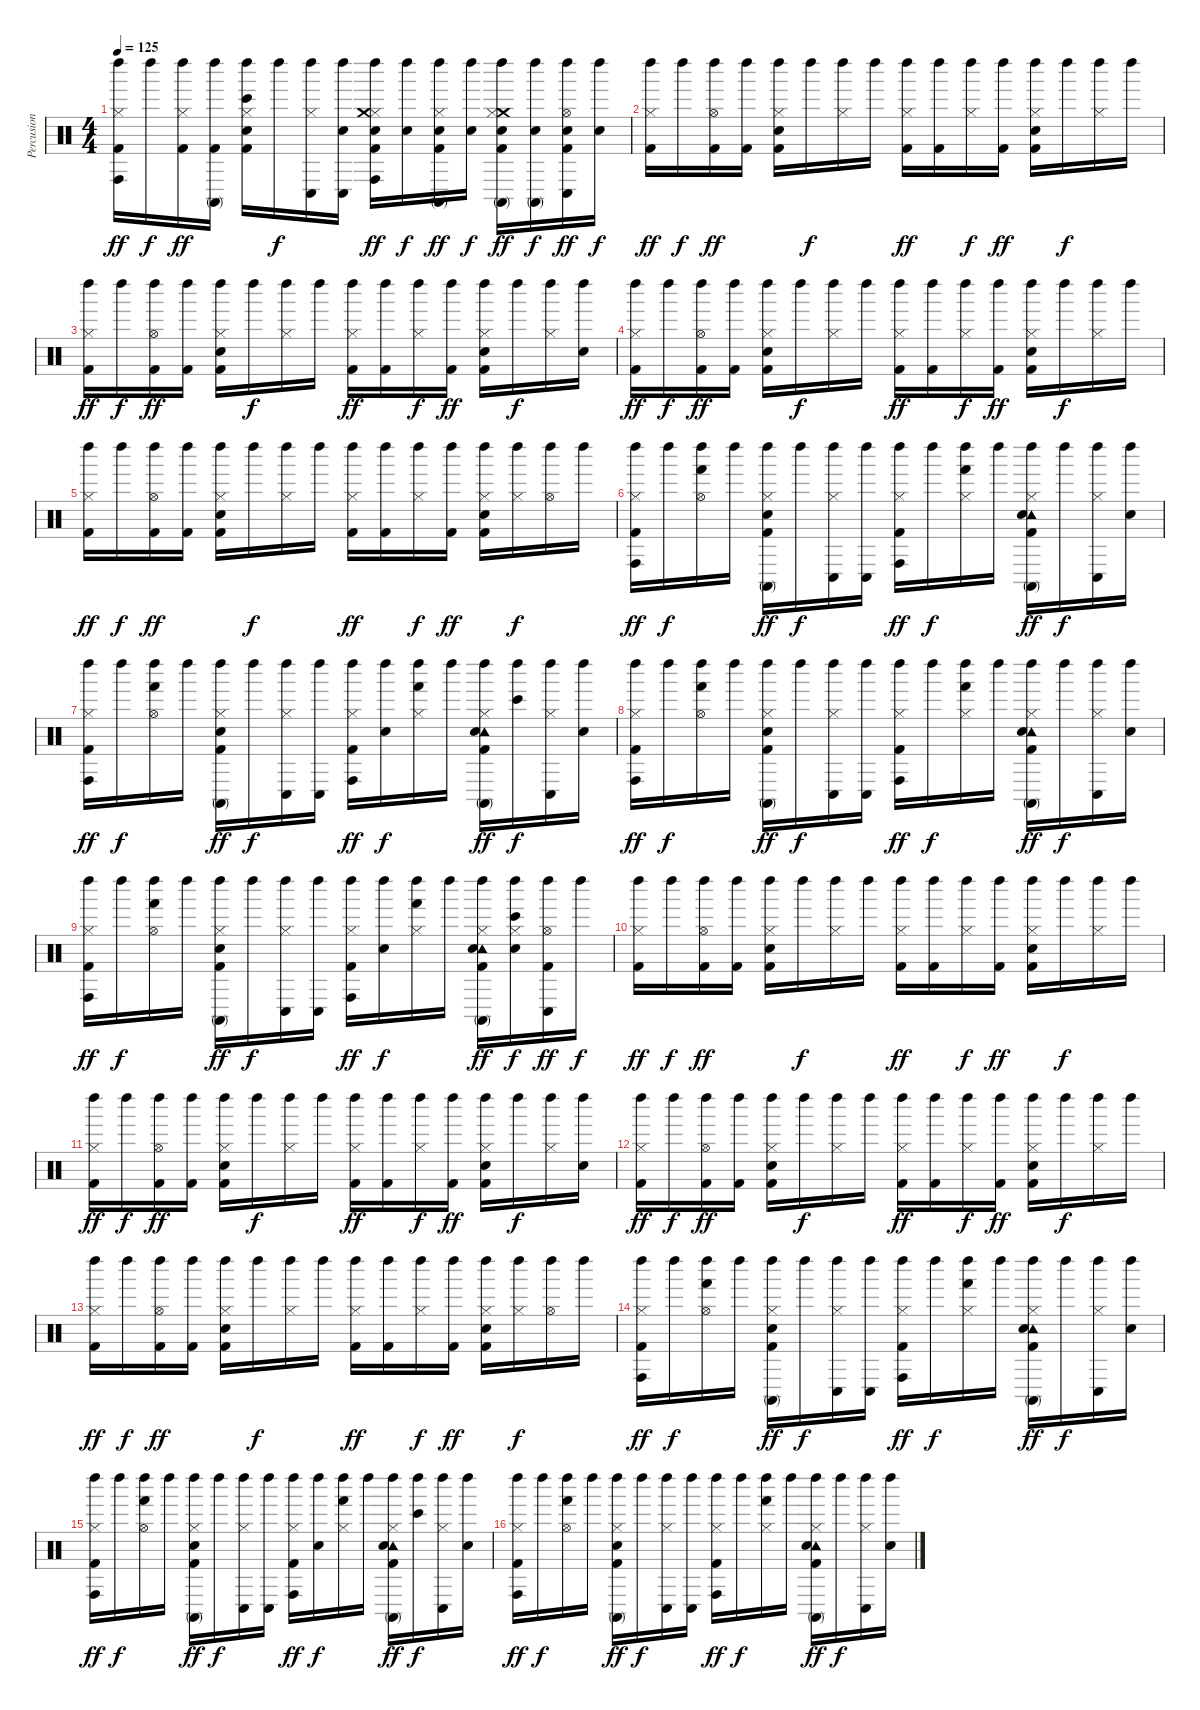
\track ("Percusion" "Percusion") {instrument percussion}
\staff {score}
\articulation defaults
\ts (4 4)
\tempo 125
\clef neutral
\ks c
("Left Maraca (hit)" "Hi-Hat (closed)" "Conga high (hit)" "Kick (hit) 2").16{dy ff} "Left Maraca (hit)".16{dy f} ("Left Maraca (hit)" "Hi-Hat (closed)" "Kick (hit) 2").16{dy ff} ("Left Maraca (hit)" "Conga high (mute)" "Kick (hit) 2").16 ("Electric Snare (hit)" "Left Maraca (hit)" "Hi-Hat (closed)" "Bongo High (hit)" "Kick (hit) 2").16 "Left Maraca (hit)".16{dy f} ("Left Maraca (hit)" "Hi-Hat (closed)" "Conga low (hit)").16 ("Conga low (hit)" "Left Maraca (hit)" "Electric Snare (hit)").16 ("Electric Snare (hit)" "Left Maraca (hit)" "Hi-Hat (closed)" "Crash medium (hit)" "Conga high (hit)" "Kick (hit) 2").16{dy ff} ("Electric Snare (hit)" "Left Maraca (hit)").16{dy f} ("Conga high (mute)" "Left Maraca (hit)" "Hi-Hat (closed)" "Electric Snare (hit)" "Kick (hit) 2").16{dy ff} ("Electric Snare (hit)" "Left Maraca (hit)").16{dy f} ("Crash medium (hit)" "Conga high (mute)" "Left Maraca (hit)" "Hi-Hat (closed)" "Electric Snare (hit)" "Kick (hit) 2").16{dy ff} ("Electric Snare (hit)" "Left Maraca (hit)" "Conga high (mute)").16{dy f} ("Conga low (hit)" "Left Maraca (hit)" "Hi-Hat (open)" "Electric Snare (hit)" "Kick (hit) 2").16{dy ff} ("Electric Snare (hit)" "Left Maraca (hit)").16{dy f} |
("Left Maraca (hit)" "Hi-Hat (closed)" "Kick (hit) 2").16{dy ff} "Left Maraca (hit)".16{dy f} ("Left Maraca (hit)" "Hi-Hat (open)" "Kick (hit) 2").16{dy ff} ("Kick (hit) 2" "Left Maraca (hit)").16 ("Left Maraca (hit)" "Hi-Hat (closed)" "Kick (hit) 2" "Electric Snare (hit)").16 "Left Maraca (hit)".16{dy f} ("Left Maraca (hit)" "Hi-Hat (closed)").16 "Left Maraca (hit)".16 ("Left Maraca (hit)" "Hi-Hat (closed)" "Kick (hit) 2").16{dy ff} ("Kick (hit) 2" "Left Maraca (hit)").16 ("Left Maraca (hit)" "Hi-Hat (closed)").16{dy f} ("Left Maraca (hit)" "Kick (hit) 2").16{dy ff} ("Kick (hit) 2" "Electric Snare (hit)" "Left Maraca (hit)" "Hi-Hat (closed)").16 "Left Maraca (hit)".16{dy f} ("Left Maraca (hit)" "Hi-Hat (closed)").16 "Left Maraca (hit)".16 |
("Left Maraca (hit)" "Hi-Hat (closed)" "Kick (hit) 2").16{dy ff} "Left Maraca (hit)".16{dy f} ("Left Maraca (hit)" "Hi-Hat (open)" "Kick (hit) 2").16{dy ff} ("Kick (hit) 2" "Left Maraca (hit)").16 ("Left Maraca (hit)" "Hi-Hat (closed)" "Kick (hit) 2" "Electric Snare (hit)").16 "Left Maraca (hit)".16{dy f} ("Left Maraca (hit)" "Hi-Hat (closed)").16 "Left Maraca (hit)".16 ("Left Maraca (hit)" "Hi-Hat (closed)" "Kick (hit) 2").16{dy ff} ("Kick (hit) 2" "Left Maraca (hit)").16 ("Left Maraca (hit)" "Hi-Hat (closed)").16{dy f} ("Left Maraca (hit)" "Kick (hit) 2").16{dy ff} ("Kick (hit) 2" "Electric Snare (hit)" "Left Maraca (hit)" "Hi-Hat (closed)").16 "Left Maraca (hit)".16{dy f} ("Left Maraca (hit)" "Hi-Hat (closed)").16 ("Left Maraca (hit)" "Electric Snare (hit)").16 |
("Kick (hit) 2" "Left Maraca (hit)" "Hi-Hat (closed)").16{dy ff} "Left Maraca (hit)".16{dy f} ("Left Maraca (hit)" "Hi-Hat (open)" "Kick (hit) 2").16{dy ff} ("Kick (hit) 2" "Left Maraca (hit)").16 ("Left Maraca (hit)" "Hi-Hat (closed)" "Kick (hit) 2" "Electric Snare (hit)").16 "Left Maraca (hit)".16{dy f} ("Left Maraca (hit)" "Hi-Hat (closed)").16 "Left Maraca (hit)".16 ("Left Maraca (hit)" "Hi-Hat (closed)" "Kick (hit) 2").16{dy ff} ("Kick (hit) 2" "Left Maraca (hit)").16 ("Left Maraca (hit)" "Hi-Hat (closed)").16{dy f} ("Left Maraca (hit)" "Kick (hit) 2").16{dy ff} ("Kick (hit) 2" "Electric Snare (hit)" "Left Maraca (hit)" "Hi-Hat (closed)").16 "Left Maraca (hit)".16{dy f} ("Left Maraca (hit)" "Hi-Hat (closed)").16 "Left Maraca (hit)".16 |
("Left Maraca (hit)" "Hi-Hat (closed)" "Kick (hit) 2").16{dy ff} "Left Maraca (hit)".16{dy f} ("Left Maraca (hit)" "Hi-Hat (open)" "Kick (hit) 2").16{dy ff} ("Kick (hit) 2" "Left Maraca (hit)").16 ("Left Maraca (hit)" "Hi-Hat (closed)" "Kick (hit) 2" "Electric Snare (hit)").16 "Left Maraca (hit)".16{dy f} ("Left Maraca (hit)" "Hi-Hat (closed)").16 "Left Maraca (hit)".16 ("Left Maraca (hit)" "Hi-Hat (closed)" "Kick (hit) 2").16{dy ff} ("Kick (hit) 2" "Left Maraca (hit)").16 ("Left Maraca (hit)" "Hi-Hat (closed)").16{dy f} ("Left Maraca (hit)" "Kick (hit) 2").16{dy ff} ("Kick (hit) 2" "Electric Snare (hit)" "Left Maraca (hit)" "Hi-Hat (closed)").16 ("Left Maraca (hit)" "Hi-Hat (closed)").16{dy f} ("Left Maraca (hit)" "Hi-Hat (open)").16 "Left Maraca (hit)".16 |
("Left Maraca (hit)" "Hi-Hat (closed)" "Conga high (hit)" "Kick (hit) 2").16{dy ff} "Left Maraca (hit)".16{dy f} ("Left Maraca (hit)" "Hi-Hat (open)" "Hand (hit)").16 "Left Maraca (hit)".16 ("Left Maraca (hit)" "Hi-Hat (closed)" "Conga high (mute)" "Kick (hit) 2" "Electric Snare (hit)").16{dy ff} "Left Maraca (hit)".16{dy f} ("Left Maraca (hit)" "Hi-Hat (closed)" "Conga low (hit)").16 ("Conga low (hit)" "Left Maraca (hit)").16 ("Left Maraca (hit)" "Hi-Hat (closed)" "Conga high (hit)" "Kick (hit) 2").16{dy ff} "Left Maraca (hit)".16{dy f} ("Left Maraca (hit)" "Hi-Hat (closed)" "Hand (hit)").16 "Left Maraca (hit)".16 ("Left Maraca (hit)" "Hi-Hat (closed)" "Conga high (mute)" "Tambourine (hit)" "Kick (hit) 2" "Electric Snare (hit)").16{dy ff} "Left Maraca (hit)".16{dy f} ("Left Maraca (hit)" "Hi-Hat (closed)" "Conga low (hit)").16 ("Left Maraca (hit)" "Electric Snare (hit)").16 |
("Kick (hit) 2" "Left Maraca (hit)" "Hi-Hat (closed)" "Conga high (hit)").16{dy ff} "Left Maraca (hit)".16{dy f} ("Left Maraca (hit)" "Hi-Hat (open)" "Hand (hit)").16 "Left Maraca (hit)".16 ("Left Maraca (hit)" "Hi-Hat (closed)" "Conga high (mute)" "Kick (hit) 2" "Electric Snare (hit)").16{dy ff} "Left Maraca (hit)".16{dy f} ("Left Maraca (hit)" "Hi-Hat (closed)" "Conga low (hit)").16 ("Conga low (hit)" "Left Maraca (hit)").16 ("Left Maraca (hit)" "Hi-Hat (closed)" "Conga high (hit)" "Kick (hit) 2").16{dy ff} ("Electric Snare (hit)" "Left Maraca (hit)").16{dy f} ("Left Maraca (hit)" "Hi-Hat (closed)" "Hand (hit)").16 "Left Maraca (hit)".16 ("Left Maraca (hit)" "Hi-Hat (closed)" "Conga high (mute)" "Tambourine (hit)" "Electric Snare (hit)" "Kick (hit) 2").16{dy ff} ("Bongo High (hit)" "Left Maraca (hit)").16{dy f} ("Left Maraca (hit)" "Hi-Hat (closed)" "Conga low (hit)").16 ("Left Maraca (hit)" "Electric Snare (hit)").16 |
("Kick (hit) 2" "Left Maraca (hit)" "Hi-Hat (closed)" "Conga high (hit)").16{dy ff} "Left Maraca (hit)".16{dy f} ("Left Maraca (hit)" "Hi-Hat (open)" "Hand (hit)").16 "Left Maraca (hit)".16 ("Left Maraca (hit)" "Hi-Hat (closed)" "Conga high (mute)" "Kick (hit) 2" "Electric Snare (hit)").16{dy ff} "Left Maraca (hit)".16{dy f} ("Left Maraca (hit)" "Hi-Hat (closed)" "Conga low (hit)").16 ("Conga low (hit)" "Left Maraca (hit)").16 ("Left Maraca (hit)" "Hi-Hat (closed)" "Conga high (hit)" "Kick (hit) 2").16{dy ff} "Left Maraca (hit)".16{dy f} ("Left Maraca (hit)" "Hi-Hat (closed)" "Hand (hit)").16 "Left Maraca (hit)".16 ("Left Maraca (hit)" "Hi-Hat (closed)" "Conga high (mute)" "Tambourine (hit)" "Kick (hit) 2" "Electric Snare (hit)").16{dy ff} "Left Maraca (hit)".16{dy f} ("Left Maraca (hit)" "Hi-Hat (closed)" "Conga low (hit)").16 ("Left Maraca (hit)" "Electric Snare (hit)").16 |
("Kick (hit) 2" "Left Maraca (hit)" "Hi-Hat (closed)" "Conga high (hit)").16{dy ff} "Left Maraca (hit)".16{dy f} ("Left Maraca (hit)" "Hi-Hat (open)" "Hand (hit)").16 "Left Maraca (hit)".16 ("Left Maraca (hit)" "Hi-Hat (closed)" "Conga high (mute)" "Kick (hit) 2" "Electric Snare (hit)").16{dy ff} "Left Maraca (hit)".16{dy f} ("Left Maraca (hit)" "Hi-Hat (closed)" "Conga low (hit)").16 ("Conga low (hit)" "Left Maraca (hit)").16 ("Left Maraca (hit)" "Hi-Hat (closed)" "Conga high (hit)" "Kick (hit) 2").16{dy ff} ("Electric Snare (hit)" "Left Maraca (hit)").16{dy f} ("Left Maraca (hit)" "Hi-Hat (closed)" "Hand (hit)").16 "Left Maraca (hit)".16 ("Left Maraca (hit)" "Hi-Hat (closed)" "Conga high (mute)" "Tambourine (hit)" "Electric Snare (hit)" "Kick (hit) 2").16{dy ff} ("Electric Snare (hit)" "Bongo High (hit)" "Left Maraca (hit)" "Hi-Hat (closed)").16{dy f} ("Left Maraca (hit)" "Hi-Hat (open)" "Conga low (hit)" "Kick (hit) 2").16{dy ff} "Left Maraca (hit)".16{dy f} |
("Left Maraca (hit)" "Hi-Hat (closed)" "Kick (hit) 2").16{dy ff} "Left Maraca (hit)".16{dy f} ("Left Maraca (hit)" "Hi-Hat (open)" "Kick (hit) 2").16{dy ff} ("Kick (hit) 2" "Left Maraca (hit)").16 ("Left Maraca (hit)" "Hi-Hat (closed)" "Kick (hit) 2" "Electric Snare (hit)").16 "Left Maraca (hit)".16{dy f} ("Left Maraca (hit)" "Hi-Hat (closed)").16 "Left Maraca (hit)".16 ("Left Maraca (hit)" "Hi-Hat (closed)" "Kick (hit) 2").16{dy ff} ("Kick (hit) 2" "Left Maraca (hit)").16 ("Left Maraca (hit)" "Hi-Hat (closed)").16{dy f} ("Left Maraca (hit)" "Kick (hit) 2").16{dy ff} ("Kick (hit) 2" "Electric Snare (hit)" "Left Maraca (hit)" "Hi-Hat (closed)").16 "Left Maraca (hit)".16{dy f} ("Left Maraca (hit)" "Hi-Hat (closed)").16 "Left Maraca (hit)".16 |
("Left Maraca (hit)" "Hi-Hat (closed)" "Kick (hit) 2").16{dy ff} "Left Maraca (hit)".16{dy f} ("Left Maraca (hit)" "Hi-Hat (open)" "Kick (hit) 2").16{dy ff} ("Kick (hit) 2" "Left Maraca (hit)").16 ("Left Maraca (hit)" "Hi-Hat (closed)" "Kick (hit) 2" "Electric Snare (hit)").16 "Left Maraca (hit)".16{dy f} ("Left Maraca (hit)" "Hi-Hat (closed)").16 "Left Maraca (hit)".16 ("Left Maraca (hit)" "Hi-Hat (closed)" "Kick (hit) 2").16{dy ff} ("Kick (hit) 2" "Left Maraca (hit)").16 ("Left Maraca (hit)" "Hi-Hat (closed)").16{dy f} ("Left Maraca (hit)" "Kick (hit) 2").16{dy ff} ("Kick (hit) 2" "Electric Snare (hit)" "Left Maraca (hit)" "Hi-Hat (closed)").16 "Left Maraca (hit)".16{dy f} ("Left Maraca (hit)" "Hi-Hat (closed)").16 ("Left Maraca (hit)" "Electric Snare (hit)").16 |
("Kick (hit) 2" "Left Maraca (hit)" "Hi-Hat (closed)").16{dy ff} "Left Maraca (hit)".16{dy f} ("Left Maraca (hit)" "Hi-Hat (open)" "Kick (hit) 2").16{dy ff} ("Kick (hit) 2" "Left Maraca (hit)").16 ("Left Maraca (hit)" "Hi-Hat (closed)" "Kick (hit) 2" "Electric Snare (hit)").16 "Left Maraca (hit)".16{dy f} ("Left Maraca (hit)" "Hi-Hat (closed)").16 "Left Maraca (hit)".16 ("Left Maraca (hit)" "Hi-Hat (closed)" "Kick (hit) 2").16{dy ff} ("Kick (hit) 2" "Left Maraca (hit)").16 ("Left Maraca (hit)" "Hi-Hat (closed)").16{dy f} ("Left Maraca (hit)" "Kick (hit) 2").16{dy ff} ("Kick (hit) 2" "Electric Snare (hit)" "Left Maraca (hit)" "Hi-Hat (closed)").16 "Left Maraca (hit)".16{dy f} ("Left Maraca (hit)" "Hi-Hat (closed)").16 "Left Maraca (hit)".16 |
("Left Maraca (hit)" "Hi-Hat (closed)" "Kick (hit) 2").16{dy ff} "Left Maraca (hit)".16{dy f} ("Left Maraca (hit)" "Hi-Hat (open)" "Kick (hit) 2").16{dy ff} ("Kick (hit) 2" "Left Maraca (hit)").16 ("Left Maraca (hit)" "Hi-Hat (closed)" "Kick (hit) 2" "Electric Snare (hit)").16 "Left Maraca (hit)".16{dy f} ("Left Maraca (hit)" "Hi-Hat (closed)").16 "Left Maraca (hit)".16 ("Left Maraca (hit)" "Hi-Hat (closed)" "Kick (hit) 2").16{dy ff} ("Kick (hit) 2" "Left Maraca (hit)").16 ("Left Maraca (hit)" "Hi-Hat (closed)").16{dy f} ("Left Maraca (hit)" "Kick (hit) 2").16{dy ff} ("Kick (hit) 2" "Electric Snare (hit)" "Left Maraca (hit)" "Hi-Hat (closed)").16 ("Left Maraca (hit)" "Hi-Hat (closed)").16{dy f} ("Left Maraca (hit)" "Hi-Hat (open)").16 "Left Maraca (hit)".16 |
("Left Maraca (hit)" "Hi-Hat (closed)" "Conga high (hit)" "Kick (hit) 2").16{dy ff} "Left Maraca (hit)".16{dy f} ("Left Maraca (hit)" "Hi-Hat (open)" "Hand (hit)").16 "Left Maraca (hit)".16 ("Left Maraca (hit)" "Hi-Hat (closed)" "Conga high (mute)" "Kick (hit) 2" "Electric Snare (hit)").16{dy ff} "Left Maraca (hit)".16{dy f} ("Left Maraca (hit)" "Hi-Hat (closed)" "Conga low (hit)").16 ("Conga low (hit)" "Left Maraca (hit)").16 ("Left Maraca (hit)" "Hi-Hat (closed)" "Conga high (hit)" "Kick (hit) 2").16{dy ff} "Left Maraca (hit)".16{dy f} ("Left Maraca (hit)" "Hi-Hat (closed)" "Hand (hit)").16 "Left Maraca (hit)".16 ("Left Maraca (hit)" "Hi-Hat (closed)" "Conga high (mute)" "Tambourine (hit)" "Kick (hit) 2" "Electric Snare (hit)").16{dy ff} "Left Maraca (hit)".16{dy f} ("Left Maraca (hit)" "Hi-Hat (closed)" "Conga low (hit)").16 ("Left Maraca (hit)" "Electric Snare (hit)").16 |
("Kick (hit) 2" "Left Maraca (hit)" "Hi-Hat (closed)" "Conga high (hit)").16{dy ff} "Left Maraca (hit)".16{dy f} ("Left Maraca (hit)" "Hi-Hat (open)" "Hand (hit)").16 "Left Maraca (hit)".16 ("Left Maraca (hit)" "Hi-Hat (closed)" "Conga high (mute)" "Kick (hit) 2" "Electric Snare (hit)").16{dy ff} "Left Maraca (hit)".16{dy f} ("Left Maraca (hit)" "Hi-Hat (closed)" "Conga low (hit)").16 ("Conga low (hit)" "Left Maraca (hit)").16 ("Left Maraca (hit)" "Hi-Hat (closed)" "Conga high (hit)" "Kick (hit) 2").16{dy ff} ("Electric Snare (hit)" "Left Maraca (hit)").16{dy f} ("Left Maraca (hit)" "Hi-Hat (closed)" "Hand (hit)").16 "Left Maraca (hit)".16 ("Left Maraca (hit)" "Hi-Hat (closed)" "Conga high (mute)" "Tambourine (hit)" "Electric Snare (hit)" "Kick (hit) 2").16{dy ff} ("Bongo High (hit)" "Left Maraca (hit)").16{dy f} ("Left Maraca (hit)" "Hi-Hat (closed)" "Conga low (hit)").16 ("Left Maraca (hit)" "Electric Snare (hit)").16 |
("Kick (hit) 2" "Left Maraca (hit)" "Hi-Hat (closed)" "Conga high (hit)").16{dy ff} "Left Maraca (hit)".16{dy f} ("Left Maraca (hit)" "Hi-Hat (open)" "Hand (hit)").16 "Left Maraca (hit)".16 ("Left Maraca (hit)" "Hi-Hat (closed)" "Conga high (mute)" "Kick (hit) 2" "Electric Snare (hit)").16{dy ff} "Left Maraca (hit)".16{dy f} ("Left Maraca (hit)" "Hi-Hat (closed)" "Conga low (hit)").16 ("Conga low (hit)" "Left Maraca (hit)").16 ("Left Maraca (hit)" "Hi-Hat (closed)" "Conga high (hit)" "Kick (hit) 2").16{dy ff} "Left Maraca (hit)".16{dy f} ("Left Maraca (hit)" "Hi-Hat (closed)" "Hand (hit)").16 "Left Maraca (hit)".16 ("Left Maraca (hit)" "Hi-Hat (closed)" "Conga high (mute)" "Tambourine (hit)" "Kick (hit) 2" "Electric Snare (hit)").16{dy ff} "Left Maraca (hit)".16{dy f} ("Left Maraca (hit)" "Hi-Hat (closed)" "Conga low (hit)").16 ("Left Maraca (hit)" "Electric Snare (hit)").16
